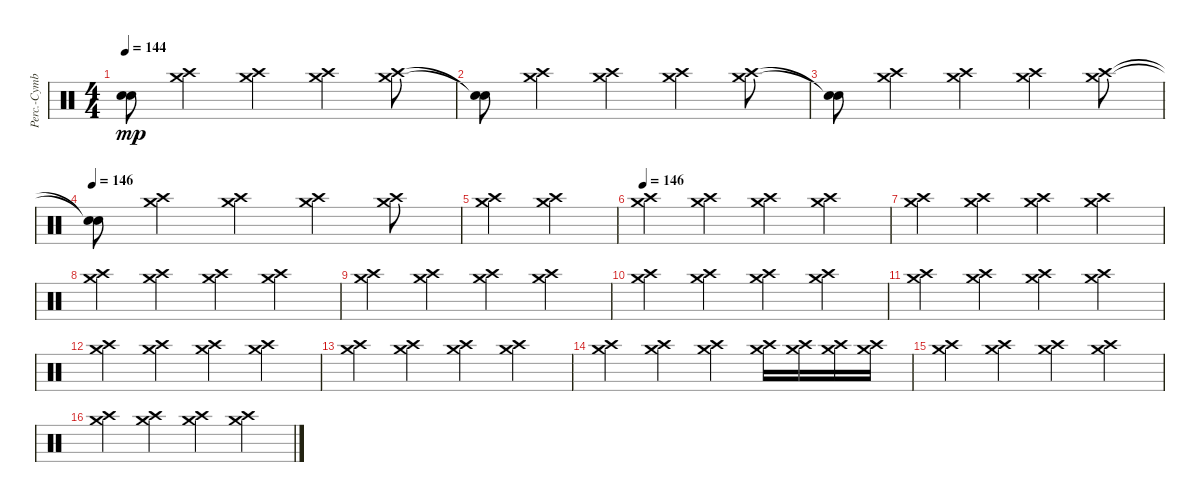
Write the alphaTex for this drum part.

\track ("Perc.-Cymbals" "Perc.-Cymb") {instrument percussion}
\staff {score}
\articulation defaults
\ts (4 4)
\tempo 144
\clef neutral
\ks c
("Snare (hit)"{t} "Snare (hit)"{t}).8{dy mp} ("Crash high (hit)" "Crash medium (hit)").4 ("Crash high (hit)" "Crash medium (hit)").4 ("Crash high (hit)" "Crash medium (hit)").4 ("Crash high (hit)" "Crash medium (hit)").8 |
("Snare (hit)"{t} "Snare (hit)"{t}).8 ("Crash high (hit)" "Crash medium (hit)").4 ("Crash high (hit)" "Crash medium (hit)").4 ("Crash high (hit)" "Crash medium (hit)").4 ("Crash high (hit)" "Crash medium (hit)").8 |
("Snare (hit)"{t} "Snare (hit)"{t}).8 ("Crash high (hit)" "Crash medium (hit)").4 ("Crash high (hit)" "Crash medium (hit)").4 ("Crash high (hit)" "Crash medium (hit)").4 ("Crash high (hit)" "Crash medium (hit)").8 |
\tempo 146
("Snare (hit)"{t} "Snare (hit)"{t}).8 ("Crash high (hit)" "Crash medium (hit)").4 ("Crash high (hit)" "Crash medium (hit)").4 ("Crash high (hit)" "Crash medium (hit)").4 ("Crash high (hit)" "Crash medium (hit)").8 |
("Crash high (hit)" "Crash medium (hit)").2 ("Crash high (hit)" "Crash medium (hit)").2 |
\tempo 146
("Crash high (hit)" "Crash medium (hit)").4 ("Crash high (hit)" "Crash medium (hit)").4 ("Crash high (hit)" "Crash medium (hit)").4 ("Crash high (hit)" "Crash medium (hit)").4 |
("Crash high (hit)" "Crash medium (hit)").4 ("Crash high (hit)" "Crash medium (hit)").4 ("Crash high (hit)" "Crash medium (hit)").4 ("Crash high (hit)" "Crash medium (hit)").4 |
("Crash high (hit)" "Crash medium (hit)").4 ("Crash high (hit)" "Crash medium (hit)").4 ("Crash high (hit)" "Crash medium (hit)").4 ("Crash high (hit)" "Crash medium (hit)").4 |
("Crash high (hit)" "Crash medium (hit)").4 ("Crash high (hit)" "Crash medium (hit)").4 ("Crash high (hit)" "Crash medium (hit)").4 ("Crash high (hit)" "Crash medium (hit)").4 |
("Crash high (hit)" "Crash medium (hit)").4 ("Crash high (hit)" "Crash medium (hit)").4 ("Crash high (hit)" "Crash medium (hit)").4 ("Crash high (hit)" "Crash medium (hit)").4 |
("Crash high (hit)" "Crash medium (hit)").4 ("Crash high (hit)" "Crash medium (hit)").4 ("Crash high (hit)" "Crash medium (hit)").4 ("Crash high (hit)" "Crash medium (hit)").4 |
("Crash high (hit)" "Crash medium (hit)").4 ("Crash high (hit)" "Crash medium (hit)").4 ("Crash high (hit)" "Crash medium (hit)").4 ("Crash high (hit)" "Crash medium (hit)").4 |
("Crash high (hit)" "Crash medium (hit)").4 ("Crash high (hit)" "Crash medium (hit)").4 ("Crash high (hit)" "Crash medium (hit)").4 ("Crash high (hit)" "Crash medium (hit)").4 |
("Crash high (hit)" "Crash medium (hit)").4 ("Crash high (hit)" "Crash medium (hit)").4 ("Crash high (hit)" "Crash medium (hit)").4 ("Crash high (hit)" "Crash medium (hit)").16 ("Crash high (hit)" "Crash medium (hit)").16 ("Crash high (hit)" "Crash medium (hit)").16 ("Crash high (hit)" "Crash medium (hit)").16 |
("Crash high (hit)" "Crash medium (hit)").4 ("Crash high (hit)" "Crash medium (hit)").4 ("Crash high (hit)" "Crash medium (hit)").4 ("Crash high (hit)" "Crash medium (hit)").4 |
("Crash high (hit)" "Crash medium (hit)").4 ("Crash high (hit)" "Crash medium (hit)").4 ("Crash high (hit)" "Crash medium (hit)").4 ("Crash high (hit)" "Crash medium (hit)").4
